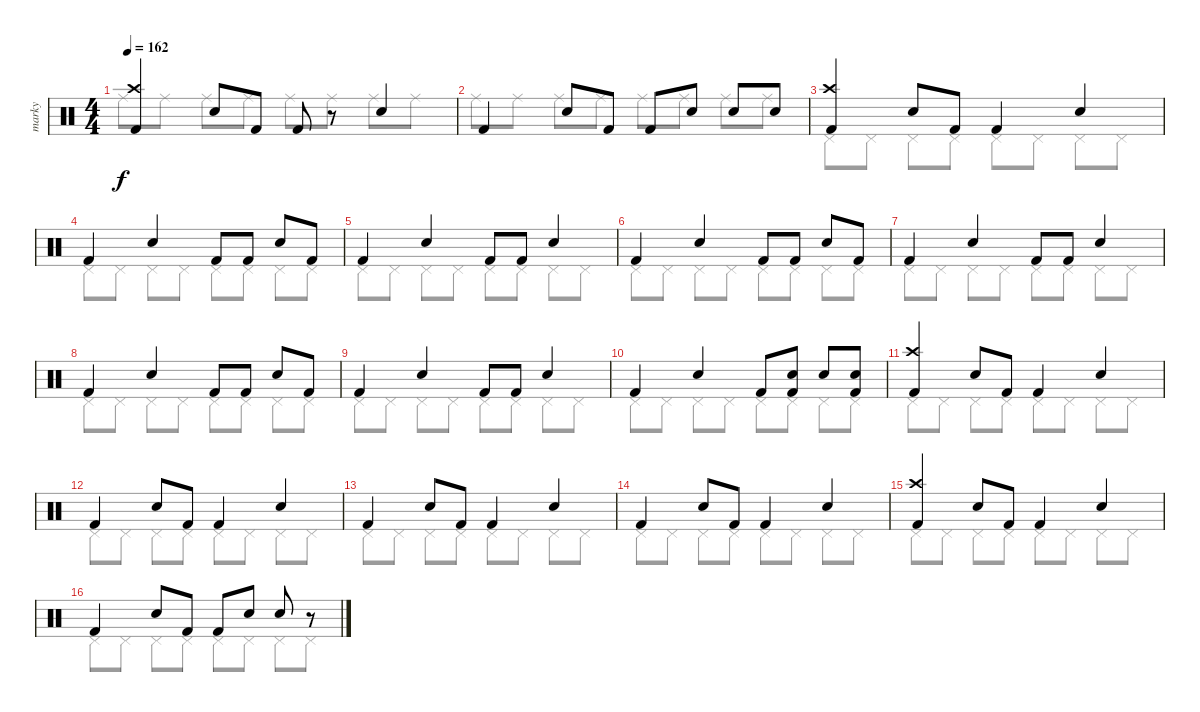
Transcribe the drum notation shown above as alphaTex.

\track ("marky" "marky") {instrument percussion}
\staff {score}
\articulation defaults
\voice
\ts (4 4)
\tempo 162
\clef neutral
\ks c
("Kick (hit) 2" "Crash high (hit)").4{dy f} "Electric Snare (hit)".8 "Kick (hit) 2".8 "Kick (hit) 2".8 r.8 "Electric Snare (hit)".4 |
"Kick (hit) 2".4 "Electric Snare (hit)".8 "Kick (hit) 2".8 "Kick (hit) 2".8 "Electric Snare (hit)".8 "Electric Snare (hit)".8 "Electric Snare (hit)".8 |
("Kick (hit) 2" "Crash high (hit)").4 "Electric Snare (hit)".8 "Kick (hit) 2".8 "Kick (hit) 2".4 "Electric Snare (hit)".4 |
"Kick (hit) 2".4 "Electric Snare (hit)".4 "Kick (hit) 2".8 "Kick (hit) 2".8 "Electric Snare (hit)".8 "Kick (hit) 2".8 |
"Kick (hit) 2".4 "Electric Snare (hit)".4 "Kick (hit) 2".8 "Kick (hit) 2".8 "Electric Snare (hit)".4 |
"Kick (hit) 2".4 "Electric Snare (hit)".4 "Kick (hit) 2".8 "Kick (hit) 2".8 "Electric Snare (hit)".8 "Kick (hit) 2".8 |
"Kick (hit) 2".4 "Electric Snare (hit)".4 "Kick (hit) 2".8 "Kick (hit) 2".8 "Electric Snare (hit)".4 |
"Kick (hit) 2".4 "Electric Snare (hit)".4 "Kick (hit) 2".8 "Kick (hit) 2".8 "Electric Snare (hit)".8 "Kick (hit) 2".8 |
"Kick (hit) 2".4 "Electric Snare (hit)".4 "Kick (hit) 2".8 "Kick (hit) 2".8 "Electric Snare (hit)".4 |
"Kick (hit) 2".4 "Electric Snare (hit)".4 "Kick (hit) 2".8 ("Kick (hit) 2" "Electric Snare (hit)").8 "Electric Snare (hit)".8 ("Kick (hit) 2" "Electric Snare (hit)").8 |
("Kick (hit) 2" "Crash high (hit)").4 "Electric Snare (hit)".8 "Kick (hit) 2".8 "Kick (hit) 2".4 "Electric Snare (hit)".4 |
"Kick (hit) 2".4 "Electric Snare (hit)".8 "Kick (hit) 2".8 "Kick (hit) 2".4 "Electric Snare (hit)".4 |
"Kick (hit) 2".4 "Electric Snare (hit)".8 "Kick (hit) 2".8 "Kick (hit) 2".4 "Electric Snare (hit)".4 |
"Kick (hit) 2".4 "Electric Snare (hit)".8 "Kick (hit) 2".8 "Kick (hit) 2".4 "Electric Snare (hit)".4 |
("Kick (hit) 2" "Crash high (hit)").4 "Electric Snare (hit)".8 "Kick (hit) 2".8 "Kick (hit) 2".4 "Electric Snare (hit)".4 |
"Kick (hit) 2".4 "Electric Snare (hit)".8 "Kick (hit) 2".8 "Kick (hit) 2".8 "Electric Snare (hit)".8 "Electric Snare (hit)".8 r.8
\voice
\clef neutral
\ottava regular
\simile none
\ks c "Ride (middle)".8{dy f} "Ride (middle)".8 "Ride (middle)".8 "Ride (middle)".8 "Ride (middle)".8 "Ride (middle)".8 "Ride (middle)".8 "Ride (middle)".8
|
"Ride (middle)".8 "Ride (middle)".8 "Ride (middle)".8 "Ride (middle)".8 "Ride (middle)".8 "Ride (middle)".8 "Ride (middle)".8 "Ride (middle)".8 |
"Pedal Hi-Hat (hit)".8 "Pedal Hi-Hat (hit)".8 "Pedal Hi-Hat (hit)".8 "Pedal Hi-Hat (hit)".8 "Pedal Hi-Hat (hit)".8 "Pedal Hi-Hat (hit)".8 "Pedal Hi-Hat (hit)".8 "Pedal Hi-Hat (hit)".8 |
"Pedal Hi-Hat (hit)".8 "Pedal Hi-Hat (hit)".8 "Pedal Hi-Hat (hit)".8 "Pedal Hi-Hat (hit)".8 "Pedal Hi-Hat (hit)".8 "Pedal Hi-Hat (hit)".8 "Pedal Hi-Hat (hit)".8 "Pedal Hi-Hat (hit)".8 |
"Pedal Hi-Hat (hit)".8 "Pedal Hi-Hat (hit)".8 "Pedal Hi-Hat (hit)".8 "Pedal Hi-Hat (hit)".8 "Pedal Hi-Hat (hit)".8 "Pedal Hi-Hat (hit)".8 "Pedal Hi-Hat (hit)".8 "Pedal Hi-Hat (hit)".8 |
"Pedal Hi-Hat (hit)".8 "Pedal Hi-Hat (hit)".8 "Pedal Hi-Hat (hit)".8 "Pedal Hi-Hat (hit)".8 "Pedal Hi-Hat (hit)".8 "Pedal Hi-Hat (hit)".8 "Pedal Hi-Hat (hit)".8 "Pedal Hi-Hat (hit)".8 |
"Pedal Hi-Hat (hit)".8 "Pedal Hi-Hat (hit)".8 "Pedal Hi-Hat (hit)".8 "Pedal Hi-Hat (hit)".8 "Pedal Hi-Hat (hit)".8 "Pedal Hi-Hat (hit)".8 "Pedal Hi-Hat (hit)".8 "Pedal Hi-Hat (hit)".8 |
"Pedal Hi-Hat (hit)".8 "Pedal Hi-Hat (hit)".8 "Pedal Hi-Hat (hit)".8 "Pedal Hi-Hat (hit)".8 "Pedal Hi-Hat (hit)".8 "Pedal Hi-Hat (hit)".8 "Pedal Hi-Hat (hit)".8 "Pedal Hi-Hat (hit)".8 |
"Pedal Hi-Hat (hit)".8 "Pedal Hi-Hat (hit)".8 "Pedal Hi-Hat (hit)".8 "Pedal Hi-Hat (hit)".8 "Pedal Hi-Hat (hit)".8 "Pedal Hi-Hat (hit)".8 "Pedal Hi-Hat (hit)".8 "Pedal Hi-Hat (hit)".8 |
"Pedal Hi-Hat (hit)".8 "Pedal Hi-Hat (hit)".8 "Pedal Hi-Hat (hit)".8 "Pedal Hi-Hat (hit)".8 "Pedal Hi-Hat (hit)".8 "Pedal Hi-Hat (hit)".8 "Pedal Hi-Hat (hit)".8 "Pedal Hi-Hat (hit)".8 |
"Pedal Hi-Hat (hit)".8 "Pedal Hi-Hat (hit)".8 "Pedal Hi-Hat (hit)".8 "Pedal Hi-Hat (hit)".8 "Pedal Hi-Hat (hit)".8 "Pedal Hi-Hat (hit)".8 "Pedal Hi-Hat (hit)".8 "Pedal Hi-Hat (hit)".8 |
"Pedal Hi-Hat (hit)".8 "Pedal Hi-Hat (hit)".8 "Pedal Hi-Hat (hit)".8 "Pedal Hi-Hat (hit)".8 "Pedal Hi-Hat (hit)".8 "Pedal Hi-Hat (hit)".8 "Pedal Hi-Hat (hit)".8 "Pedal Hi-Hat (hit)".8 |
"Pedal Hi-Hat (hit)".8 "Pedal Hi-Hat (hit)".8 "Pedal Hi-Hat (hit)".8 "Pedal Hi-Hat (hit)".8 "Pedal Hi-Hat (hit)".8 "Pedal Hi-Hat (hit)".8 "Pedal Hi-Hat (hit)".8 "Pedal Hi-Hat (hit)".8 |
"Pedal Hi-Hat (hit)".8 "Pedal Hi-Hat (hit)".8 "Pedal Hi-Hat (hit)".8 "Pedal Hi-Hat (hit)".8 "Pedal Hi-Hat (hit)".8 "Pedal Hi-Hat (hit)".8 "Pedal Hi-Hat (hit)".8 "Pedal Hi-Hat (hit)".8 |
"Pedal Hi-Hat (hit)".8 "Pedal Hi-Hat (hit)".8 "Pedal Hi-Hat (hit)".8 "Pedal Hi-Hat (hit)".8 "Pedal Hi-Hat (hit)".8 "Pedal Hi-Hat (hit)".8 "Pedal Hi-Hat (hit)".8 "Pedal Hi-Hat (hit)".8 |
"Pedal Hi-Hat (hit)".8 "Pedal Hi-Hat (hit)".8 "Pedal Hi-Hat (hit)".8 "Pedal Hi-Hat (hit)".8 "Pedal Hi-Hat (hit)".8 "Pedal Hi-Hat (hit)".8 "Pedal Hi-Hat (hit)".8 "Pedal Hi-Hat (hit)".8
